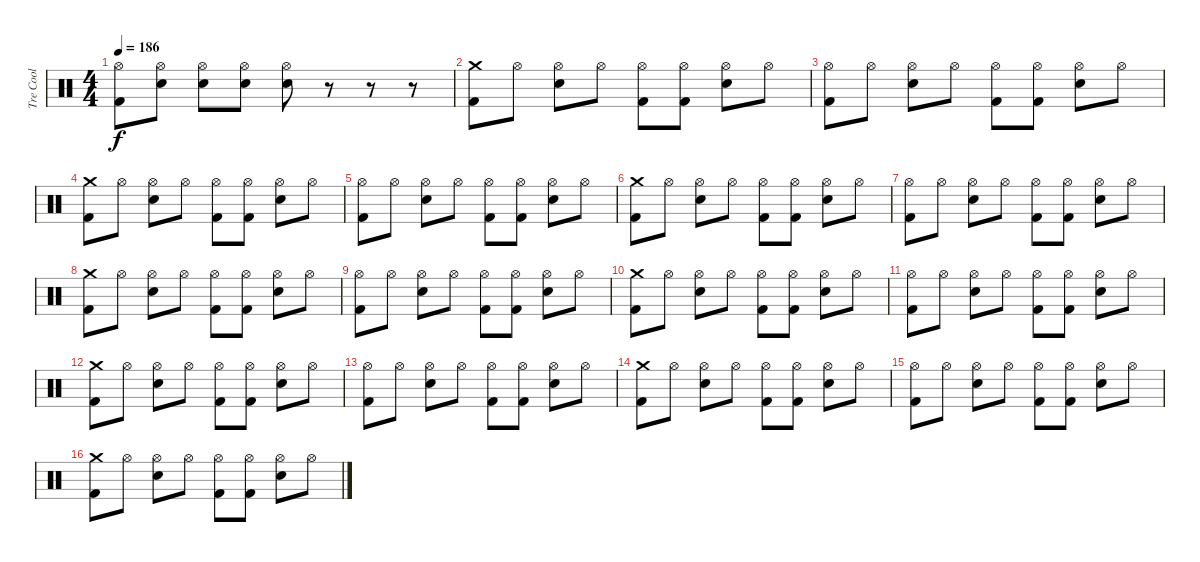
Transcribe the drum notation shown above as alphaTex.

\track ("Tre Cool" "Tre Cool") {instrument percussion}
\staff {score}
\articulation defaults
\ts (4 4)
\tempo 186
\clef neutral
\ks c
("Hi-Hat (open)" "Kick (hit) 2").8{dy f} ("Hi-Hat (open)" "Electric Snare (hit)").8 ("Hi-Hat (open)" "Electric Snare (hit)").8 ("Hi-Hat (open)" "Electric Snare (hit)").8 ("Hi-Hat (open)" "Electric Snare (hit)").8 r.8 r.8 r.8 |
("Crash medium (hit)" "Kick (hit) 2").8 "Hi-Hat (open)".8 ("Hi-Hat (open)" "Snare (hit) 2").8 "Hi-Hat (open)".8 ("Hi-Hat (open)" "Kick (hit) 2").8 ("Hi-Hat (open)" "Kick (hit) 2").8 ("Hi-Hat (open)" "Snare (hit) 2").8 "Hi-Hat (open)".8 |
("Hi-Hat (open)" "Kick (hit) 2").8 "Hi-Hat (open)".8 ("Hi-Hat (open)" "Snare (hit) 2").8 "Hi-Hat (open)".8 ("Hi-Hat (open)" "Kick (hit) 2").8 ("Hi-Hat (open)" "Kick (hit) 2").8 ("Hi-Hat (open)" "Snare (hit) 2").8 "Hi-Hat (open)".8 |
("Crash medium (hit)" "Kick (hit) 2").8 "Hi-Hat (open)".8 ("Hi-Hat (open)" "Snare (hit) 2").8 "Hi-Hat (open)".8 ("Hi-Hat (open)" "Kick (hit) 2").8 ("Hi-Hat (open)" "Kick (hit) 2").8 ("Hi-Hat (open)" "Snare (hit) 2").8 "Hi-Hat (open)".8 |
("Hi-Hat (open)" "Kick (hit) 2").8 "Hi-Hat (open)".8 ("Hi-Hat (open)" "Snare (hit) 2").8 "Hi-Hat (open)".8 ("Hi-Hat (open)" "Kick (hit) 2").8 ("Hi-Hat (open)" "Kick (hit) 2").8 ("Hi-Hat (open)" "Snare (hit) 2").8 "Hi-Hat (open)".8 |
("Crash medium (hit)" "Kick (hit) 2").8 "Hi-Hat (open)".8 ("Hi-Hat (open)" "Snare (hit) 2").8 "Hi-Hat (open)".8 ("Hi-Hat (open)" "Kick (hit) 2").8 ("Hi-Hat (open)" "Kick (hit) 2").8 ("Hi-Hat (open)" "Snare (hit) 2").8 "Hi-Hat (open)".8 |
("Hi-Hat (open)" "Kick (hit) 2").8 "Hi-Hat (open)".8 ("Hi-Hat (open)" "Snare (hit) 2").8 "Hi-Hat (open)".8 ("Hi-Hat (open)" "Kick (hit) 2").8 ("Hi-Hat (open)" "Kick (hit) 2").8 ("Hi-Hat (open)" "Snare (hit) 2").8 "Hi-Hat (open)".8 |
("Crash medium (hit)" "Kick (hit) 2").8 "Hi-Hat (open)".8 ("Hi-Hat (open)" "Snare (hit) 2").8 "Hi-Hat (open)".8 ("Hi-Hat (open)" "Kick (hit) 2").8 ("Hi-Hat (open)" "Kick (hit) 2").8 ("Hi-Hat (open)" "Snare (hit) 2").8 "Hi-Hat (open)".8 |
("Hi-Hat (open)" "Kick (hit) 2").8 "Hi-Hat (open)".8 ("Hi-Hat (open)" "Snare (hit) 2").8 "Hi-Hat (open)".8 ("Hi-Hat (open)" "Kick (hit) 2").8 ("Hi-Hat (open)" "Kick (hit) 2").8 ("Hi-Hat (open)" "Snare (hit) 2").8 "Hi-Hat (open)".8 |
("Crash medium (hit)" "Kick (hit) 2").8 "Hi-Hat (open)".8 ("Hi-Hat (open)" "Snare (hit) 2").8 "Hi-Hat (open)".8 ("Hi-Hat (open)" "Kick (hit) 2").8 ("Hi-Hat (open)" "Kick (hit) 2").8 ("Hi-Hat (open)" "Snare (hit) 2").8 "Hi-Hat (open)".8 |
("Hi-Hat (open)" "Kick (hit) 2").8 "Hi-Hat (open)".8 ("Hi-Hat (open)" "Snare (hit) 2").8 "Hi-Hat (open)".8 ("Hi-Hat (open)" "Kick (hit) 2").8 ("Hi-Hat (open)" "Kick (hit) 2").8 ("Hi-Hat (open)" "Snare (hit) 2").8 "Hi-Hat (open)".8 |
("Crash medium (hit)" "Kick (hit) 2").8 "Hi-Hat (open)".8 ("Hi-Hat (open)" "Snare (hit) 2").8 "Hi-Hat (open)".8 ("Hi-Hat (open)" "Kick (hit) 2").8 ("Hi-Hat (open)" "Kick (hit) 2").8 ("Hi-Hat (open)" "Snare (hit) 2").8 "Hi-Hat (open)".8 |
("Hi-Hat (open)" "Kick (hit) 2").8 "Hi-Hat (open)".8 ("Hi-Hat (open)" "Snare (hit) 2").8 "Hi-Hat (open)".8 ("Hi-Hat (open)" "Kick (hit) 2").8 ("Hi-Hat (open)" "Kick (hit) 2").8 ("Hi-Hat (open)" "Snare (hit) 2").8 "Hi-Hat (open)".8 |
("Crash medium (hit)" "Kick (hit) 2").8 "Hi-Hat (open)".8 ("Hi-Hat (open)" "Snare (hit) 2").8 "Hi-Hat (open)".8 ("Hi-Hat (open)" "Kick (hit) 2").8 ("Hi-Hat (open)" "Kick (hit) 2").8 ("Hi-Hat (open)" "Snare (hit) 2").8 "Hi-Hat (open)".8 |
("Hi-Hat (open)" "Kick (hit) 2").8 "Hi-Hat (open)".8 ("Hi-Hat (open)" "Snare (hit) 2").8 "Hi-Hat (open)".8 ("Hi-Hat (open)" "Kick (hit) 2").8 ("Hi-Hat (open)" "Kick (hit) 2").8 ("Hi-Hat (open)" "Snare (hit) 2").8 "Hi-Hat (open)".8 |
("Crash medium (hit)" "Kick (hit) 2").8 "Hi-Hat (open)".8 ("Hi-Hat (open)" "Snare (hit) 2").8 "Hi-Hat (open)".8 ("Hi-Hat (open)" "Kick (hit) 2").8 ("Hi-Hat (open)" "Kick (hit) 2").8 ("Hi-Hat (open)" "Snare (hit) 2").8 "Hi-Hat (open)".8
